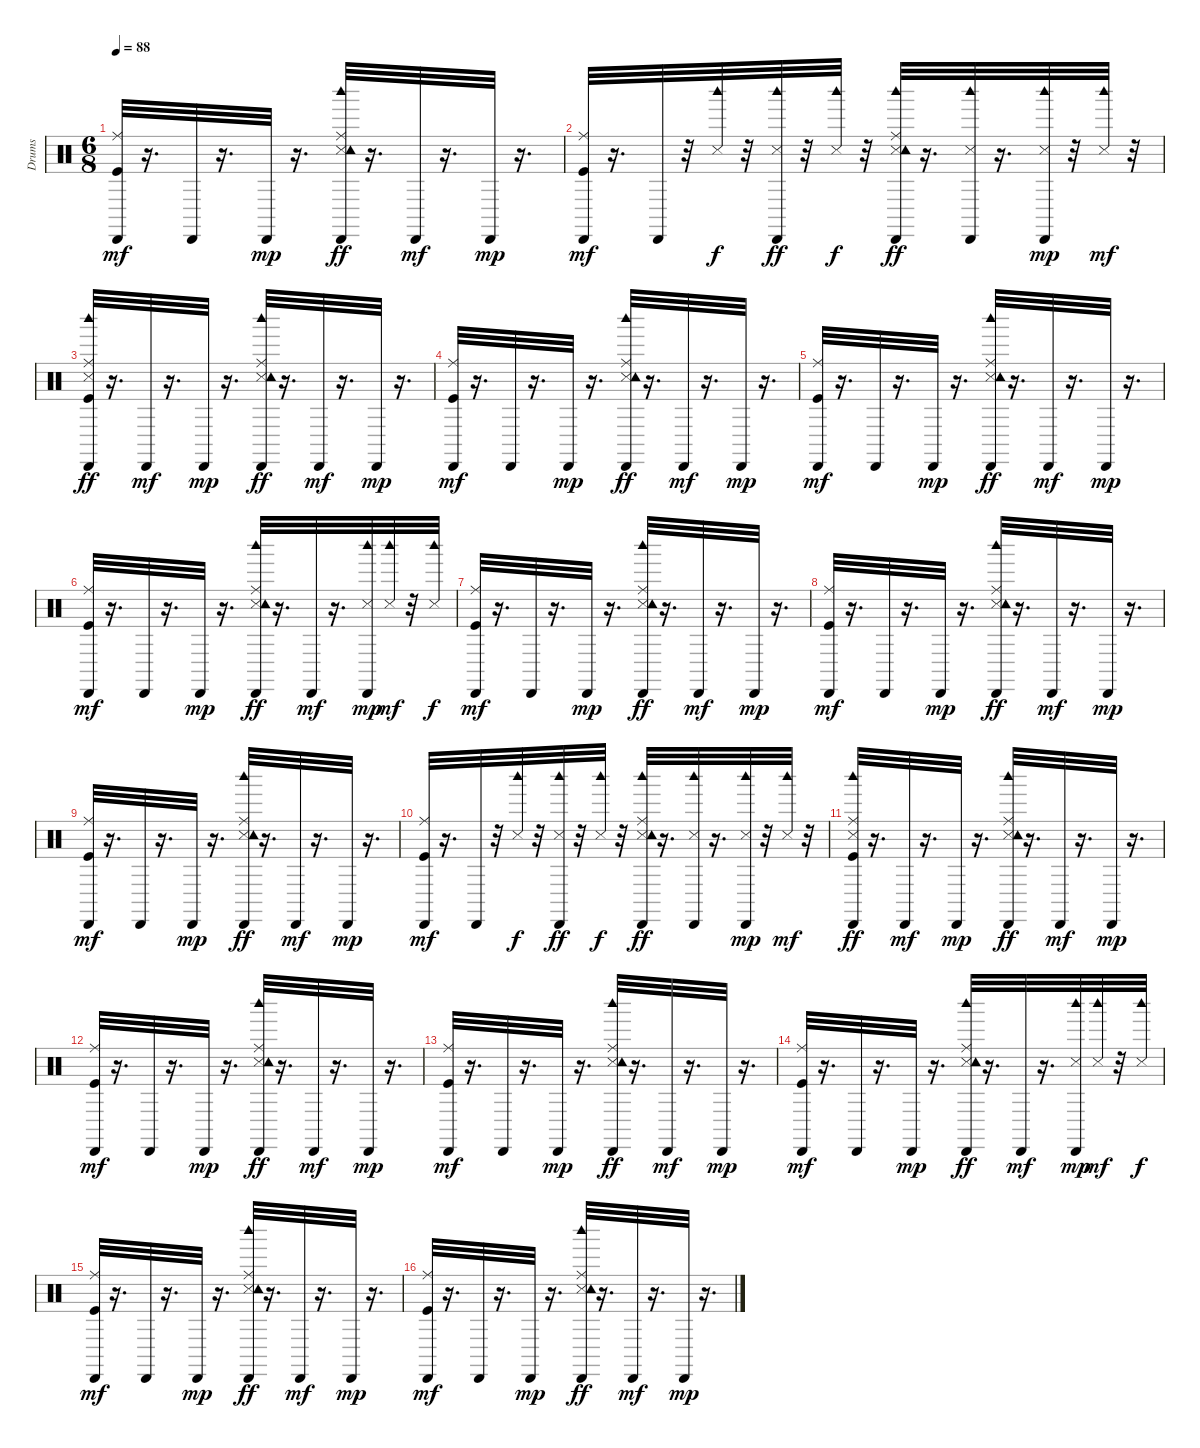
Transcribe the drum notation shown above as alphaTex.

\track ("Drums               " "Drums     ") {instrument percussion}
\staff {score}
\articulation defaults
\ts (6 8)
\tempo 88
\clef neutral
\ks c
("Kick (hit)" "Ride (middle)" "Cabasa (hit)").32{dy mf} r.16{d} "Cabasa (hit)".32 r.16{d} "Cabasa (hit)".32{dy mp} r.16{d} ("Snare (side stick) 3" "Ride (middle)" "Tambourine (hit)" "Cabasa (hit)" "Woodblock high (hit)").32{dy ff} r.16{d} "Cabasa (hit)".32{dy mf} r.16{d} "Cabasa (hit)".32{dy mp} r.16{d} |
("Kick (hit)" "Ride (middle)" "Cabasa (hit)").32{dy mf} r.16{d} "Cabasa (hit)".32 r.32 ("Snare (side stick) 3" "Woodblock high (hit)").32{dy f} r.32 ("Snare (side stick) 3" "Cabasa (hit)" "Woodblock high (hit)").32{dy ff} r.32 ("Snare (side stick) 3" "Woodblock high (hit)").32{dy f} r.32 ("Snare (side stick) 3" "Ride (middle)" "Tambourine (hit)" "Cabasa (hit)" "Woodblock high (hit)").32{dy ff} r.16{d} ("Snare (side stick) 3" "Cabasa (hit)" "Woodblock high (hit)").32 r.16{d} ("Snare (side stick) 3" "Cabasa (hit)" "Woodblock high (hit)").32{dy mp} r.32 ("Snare (side stick) 3" "Woodblock high (hit)").32{dy mf} r.32 |
("Kick (hit)" "Snare (side stick) 3" "Ride (middle)" "Cabasa (hit)" "Woodblock high (hit)").32{dy ff} r.16{d} "Cabasa (hit)".32{dy mf} r.16{d} "Cabasa (hit)".32{dy mp} r.16{d} ("Snare (side stick) 3" "Ride (middle)" "Tambourine (hit)" "Cabasa (hit)" "Woodblock high (hit)").32{dy ff} r.16{d} "Cabasa (hit)".32{dy mf} r.16{d} "Cabasa (hit)".32{dy mp} r.16{d} |
("Kick (hit)" "Ride (middle)" "Cabasa (hit)").32{dy mf} r.16{d} "Cabasa (hit)".32 r.16{d} "Cabasa (hit)".32{dy mp} r.16{d} ("Snare (side stick) 3" "Ride (middle)" "Tambourine (hit)" "Cabasa (hit)" "Woodblock high (hit)").32{dy ff} r.16{d} "Cabasa (hit)".32{dy mf} r.16{d} "Cabasa (hit)".32{dy mp} r.16{d} |
("Kick (hit)" "Ride (middle)" "Cabasa (hit)").32{dy mf} r.16{d} "Cabasa (hit)".32 r.16{d} "Cabasa (hit)".32{dy mp} r.16{d} ("Snare (side stick) 3" "Ride (middle)" "Tambourine (hit)" "Cabasa (hit)" "Woodblock high (hit)").32{dy ff} r.16{d} "Cabasa (hit)".32{dy mf} r.16{d} "Cabasa (hit)".32{dy mp} r.16{d} |
("Kick (hit)" "Ride (middle)" "Cabasa (hit)").32{dy mf} r.16{d} "Cabasa (hit)".32 r.16{d} "Cabasa (hit)".32{dy mp} r.16{d} ("Snare (side stick) 3" "Ride (middle)" "Tambourine (hit)" "Cabasa (hit)" "Woodblock high (hit)").32{dy ff} r.16{d} "Cabasa (hit)".32{dy mf} r.16{d} ("Snare (side stick) 3" "Cabasa (hit)" "Woodblock high (hit)").32{dy mp} ("Snare (side stick) 3" "Woodblock high (hit)").32{dy mf} r.32 ("Snare (side stick) 3" "Woodblock high (hit)").32{dy f} |
("Kick (hit)" "Ride (middle)" "Cabasa (hit)").32{dy mf} r.16{d} "Cabasa (hit)".32 r.16{d} "Cabasa (hit)".32{dy mp} r.16{d} ("Snare (side stick) 3" "Ride (middle)" "Tambourine (hit)" "Cabasa (hit)" "Woodblock high (hit)").32{dy ff} r.16{d} "Cabasa (hit)".32{dy mf} r.16{d} "Cabasa (hit)".32{dy mp} r.16{d} |
("Kick (hit)" "Ride (middle)" "Cabasa (hit)").32{dy mf} r.16{d} "Cabasa (hit)".32 r.16{d} "Cabasa (hit)".32{dy mp} r.16{d} ("Snare (side stick) 3" "Ride (middle)" "Tambourine (hit)" "Cabasa (hit)" "Woodblock high (hit)").32{dy ff} r.16{d} "Cabasa (hit)".32{dy mf} r.16{d} "Cabasa (hit)".32{dy mp} r.16{d} |
("Kick (hit)" "Ride (middle)" "Cabasa (hit)").32{dy mf} r.16{d} "Cabasa (hit)".32 r.16{d} "Cabasa (hit)".32{dy mp} r.16{d} ("Snare (side stick) 3" "Ride (middle)" "Tambourine (hit)" "Cabasa (hit)" "Woodblock high (hit)").32{dy ff} r.16{d} "Cabasa (hit)".32{dy mf} r.16{d} "Cabasa (hit)".32{dy mp} r.16{d} |
("Kick (hit)" "Ride (middle)" "Cabasa (hit)").32{dy mf} r.16{d} "Cabasa (hit)".32 r.32 ("Snare (side stick) 3" "Woodblock high (hit)").32{dy f} r.32 ("Snare (side stick) 3" "Cabasa (hit)" "Woodblock high (hit)").32{dy ff} r.32 ("Snare (side stick) 3" "Woodblock high (hit)").32{dy f} r.32 ("Snare (side stick) 3" "Ride (middle)" "Tambourine (hit)" "Cabasa (hit)" "Woodblock high (hit)").32{dy ff} r.16{d} ("Snare (side stick) 3" "Cabasa (hit)" "Woodblock high (hit)").32 r.16{d} ("Snare (side stick) 3" "Cabasa (hit)" "Woodblock high (hit)").32{dy mp} r.32 ("Snare (side stick) 3" "Woodblock high (hit)").32{dy mf} r.32 |
("Kick (hit)" "Snare (side stick) 3" "Ride (middle)" "Cabasa (hit)" "Woodblock high (hit)").32{dy ff} r.16{d} "Cabasa (hit)".32{dy mf} r.16{d} "Cabasa (hit)".32{dy mp} r.16{d} ("Snare (side stick) 3" "Ride (middle)" "Tambourine (hit)" "Cabasa (hit)" "Woodblock high (hit)").32{dy ff} r.16{d} "Cabasa (hit)".32{dy mf} r.16{d} "Cabasa (hit)".32{dy mp} r.16{d} |
("Kick (hit)" "Ride (middle)" "Cabasa (hit)").32{dy mf} r.16{d} "Cabasa (hit)".32 r.16{d} "Cabasa (hit)".32{dy mp} r.16{d} ("Snare (side stick) 3" "Ride (middle)" "Tambourine (hit)" "Cabasa (hit)" "Woodblock high (hit)").32{dy ff} r.16{d} "Cabasa (hit)".32{dy mf} r.16{d} "Cabasa (hit)".32{dy mp} r.16{d} |
("Kick (hit)" "Ride (middle)" "Cabasa (hit)").32{dy mf} r.16{d} "Cabasa (hit)".32 r.16{d} "Cabasa (hit)".32{dy mp} r.16{d} ("Snare (side stick) 3" "Ride (middle)" "Tambourine (hit)" "Cabasa (hit)" "Woodblock high (hit)").32{dy ff} r.16{d} "Cabasa (hit)".32{dy mf} r.16{d} "Cabasa (hit)".32{dy mp} r.16{d} |
("Kick (hit)" "Ride (middle)" "Cabasa (hit)").32{dy mf} r.16{d} "Cabasa (hit)".32 r.16{d} "Cabasa (hit)".32{dy mp} r.16{d} ("Snare (side stick) 3" "Ride (middle)" "Tambourine (hit)" "Cabasa (hit)" "Woodblock high (hit)").32{dy ff} r.16{d} "Cabasa (hit)".32{dy mf} r.16{d} ("Snare (side stick) 3" "Cabasa (hit)" "Woodblock high (hit)").32{dy mp} ("Snare (side stick) 3" "Woodblock high (hit)").32{dy mf} r.32 ("Snare (side stick) 3" "Woodblock high (hit)").32{dy f} |
("Kick (hit)" "Ride (middle)" "Cabasa (hit)").32{dy mf} r.16{d} "Cabasa (hit)".32 r.16{d} "Cabasa (hit)".32{dy mp} r.16{d} ("Snare (side stick) 3" "Ride (middle)" "Tambourine (hit)" "Cabasa (hit)" "Woodblock high (hit)").32{dy ff} r.16{d} "Cabasa (hit)".32{dy mf} r.16{d} "Cabasa (hit)".32{dy mp} r.16{d} |
("Kick (hit)" "Ride (middle)" "Cabasa (hit)").32{dy mf} r.16{d} "Cabasa (hit)".32 r.16{d} "Cabasa (hit)".32{dy mp} r.16{d} ("Snare (side stick) 3" "Ride (middle)" "Tambourine (hit)" "Cabasa (hit)" "Woodblock high (hit)").32{dy ff} r.16{d} "Cabasa (hit)".32{dy mf} r.16{d} "Cabasa (hit)".32{dy mp} r.16{d}
